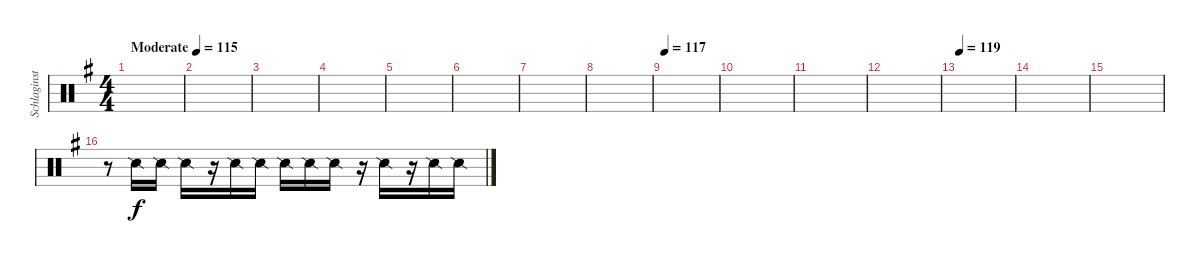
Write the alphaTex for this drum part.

\track ("Schlaginstrumente - Auswahl" "Schlaginst") {instrument percussion}
\staff {score}
\articulation defaults
\ts (4 4)
\tempo (115 "Moderate")
\clef neutral
\ks g
|
|
|
|
|
|
|
|
\tempo 117
|
|
|
|
\tempo 119
|
|
|
r.8 "Snare (side stick) 2".16 "Snare (side stick) 2".16 "Snare (side stick) 2".16 r.16 "Snare (side stick) 2".16 "Snare (side stick) 2".16 "Snare (side stick) 2".16 "Snare (side stick) 2".16 "Snare (side stick) 2".16 r.16 "Snare (side stick) 2".16 r.16 "Snare (side stick) 2".16 "Snare (side stick) 2".16
